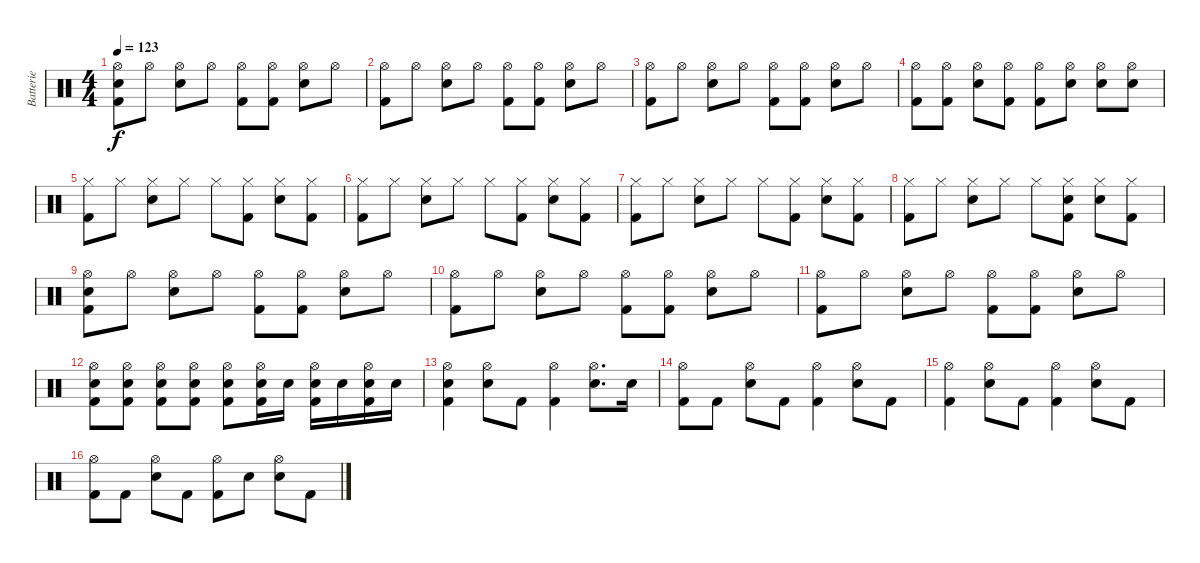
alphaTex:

\track ("Batterie" "Batterie") {instrument percussion}
\staff {score}
\articulation defaults
\ts (4 4)
\tempo 123
\clef neutral
\ks c
("Hi-Hat (open)" "Snare (hit) 2" "Kick (hit) 2").8{dy f} "Hi-Hat (open)".8 ("Hi-Hat (open)" "Snare (hit) 2").8 "Hi-Hat (open)".8 ("Hi-Hat (open)" "Kick (hit) 2").8 ("Hi-Hat (open)" "Kick (hit) 2").8 ("Hi-Hat (open)" "Snare (hit) 2").8 "Hi-Hat (open)".8 |
("Hi-Hat (open)" "Kick (hit) 2").8 "Hi-Hat (open)".8 ("Hi-Hat (open)" "Snare (hit) 2").8 "Hi-Hat (open)".8 ("Hi-Hat (open)" "Kick (hit) 2").8 ("Hi-Hat (open)" "Kick (hit) 2").8 ("Hi-Hat (open)" "Snare (hit) 2").8 "Hi-Hat (open)".8 |
("Hi-Hat (open)" "Kick (hit) 2").8 "Hi-Hat (open)".8 ("Hi-Hat (open)" "Snare (hit) 2").8 "Hi-Hat (open)".8 ("Hi-Hat (open)" "Kick (hit) 2").8 ("Hi-Hat (open)" "Kick (hit) 2").8 ("Hi-Hat (open)" "Snare (hit) 2").8 "Hi-Hat (open)".8 |
("Hi-Hat (open)" "Kick (hit) 2").8 ("Hi-Hat (open)" "Kick (hit) 2").8 ("Hi-Hat (open)" "Snare (hit) 2").8 ("Hi-Hat (open)" "Kick (hit) 2").8 ("Hi-Hat (open)" "Kick (hit) 2").8 ("Hi-Hat (open)" "Snare (hit) 2").8 ("Hi-Hat (open)" "Snare (hit) 2").8 ("Hi-Hat (open)" "Snare (hit) 2").8 |
("Hi-Hat (closed)" "Kick (hit) 2").8 "Hi-Hat (closed)".8 ("Hi-Hat (closed)" "Snare (hit) 2").8 "Hi-Hat (closed)".8 "Hi-Hat (closed)".8 ("Hi-Hat (closed)" "Kick (hit) 2").8 ("Hi-Hat (closed)" "Snare (hit) 2").8 ("Hi-Hat (closed)" "Kick (hit) 2").8 |
("Hi-Hat (closed)" "Kick (hit) 2").8 "Hi-Hat (closed)".8 ("Hi-Hat (closed)" "Snare (hit) 2").8 "Hi-Hat (closed)".8 "Hi-Hat (closed)".8 ("Hi-Hat (closed)" "Kick (hit) 2").8 ("Hi-Hat (closed)" "Snare (hit) 2").8 ("Hi-Hat (closed)" "Kick (hit) 2").8 |
("Hi-Hat (closed)" "Kick (hit) 2").8 "Hi-Hat (closed)".8 ("Hi-Hat (closed)" "Snare (hit) 2").8 "Hi-Hat (closed)".8 "Hi-Hat (closed)".8 ("Hi-Hat (closed)" "Kick (hit) 2").8 ("Hi-Hat (closed)" "Snare (hit) 2").8 ("Hi-Hat (closed)" "Kick (hit) 2").8 |
("Hi-Hat (closed)" "Kick (hit) 2").8 "Hi-Hat (closed)".8 ("Hi-Hat (closed)" "Snare (hit) 2").8 "Hi-Hat (closed)".8 "Hi-Hat (closed)".8 ("Hi-Hat (closed)" "Snare (hit) 2" "Kick (hit) 2").8 ("Hi-Hat (closed)" "Snare (hit) 2").8 ("Hi-Hat (closed)" "Kick (hit) 2").8 |
("Hi-Hat (open)" "Snare (hit) 2" "Kick (hit) 2").8 "Hi-Hat (open)".8 ("Hi-Hat (open)" "Snare (hit) 2").8 "Hi-Hat (open)".8 ("Hi-Hat (open)" "Kick (hit) 2").8 ("Hi-Hat (open)" "Kick (hit) 2").8 ("Hi-Hat (open)" "Snare (hit) 2").8 "Hi-Hat (open)".8 |
("Hi-Hat (open)" "Kick (hit) 2").8 "Hi-Hat (open)".8 ("Hi-Hat (open)" "Snare (hit) 2").8 "Hi-Hat (open)".8 ("Hi-Hat (open)" "Kick (hit) 2").8 ("Hi-Hat (open)" "Kick (hit) 2").8 ("Hi-Hat (open)" "Snare (hit) 2").8 "Hi-Hat (open)".8 |
("Hi-Hat (open)" "Kick (hit) 2").8 "Hi-Hat (open)".8 ("Hi-Hat (open)" "Snare (hit) 2").8 "Hi-Hat (open)".8 ("Hi-Hat (open)" "Kick (hit) 2").8 ("Hi-Hat (open)" "Kick (hit) 2").8 ("Hi-Hat (open)" "Snare (hit) 2").8 "Hi-Hat (open)".8{volume 6} |
("Hi-Hat (open)" "Snare (hit) 2" "Kick (hit) 2").8{volume 16} ("Hi-Hat (open)" "Snare (hit) 2" "Kick (hit) 2").8 ("Hi-Hat (open)" "Snare (hit) 2" "Kick (hit) 2").8 ("Hi-Hat (open)" "Snare (hit) 2" "Kick (hit) 2").8 ("Hi-Hat (open)" "Snare (hit) 2" "Kick (hit) 2").8 ("Hi-Hat (open)" "Snare (hit) 2" "Kick (hit) 2").16 "Snare (hit) 2".16 ("Hi-Hat (open)" "Snare (hit) 2" "Kick (hit) 2").16 "Snare (hit) 2".16 ("Hi-Hat (open)" "Snare (hit) 2" "Kick (hit) 2").16 "Snare (hit) 2".16 |
("Hi-Hat (open)" "Snare (hit) 2" "Kick (hit) 2").4 ("Hi-Hat (open)" "Snare (hit) 2").8 "Kick (hit) 2".8 ("Hi-Hat (open)" "Kick (hit) 2").4 ("Hi-Hat (open)" "Snare (hit) 2").8{d} "Snare (hit) 2".16 |
("Hi-Hat (open)" "Kick (hit) 2").8 "Kick (hit) 2".8 ("Hi-Hat (open)" "Snare (hit) 2").8 "Kick (hit) 2".8 ("Hi-Hat (open)" "Kick (hit) 2").4 ("Hi-Hat (open)" "Snare (hit) 2").8 "Kick (hit) 2".8 |
("Hi-Hat (open)" "Kick (hit) 2").4 ("Hi-Hat (open)" "Snare (hit) 2").8 "Kick (hit) 2".8 ("Hi-Hat (open)" "Kick (hit) 2").4 ("Hi-Hat (open)" "Snare (hit) 2").8 "Kick (hit) 2".8 |
("Hi-Hat (open)" "Kick (hit) 2").8 "Kick (hit) 2".8 ("Hi-Hat (open)" "Snare (hit) 2").8 "Kick (hit) 2".8 ("Hi-Hat (open)" "Kick (hit) 2").8 "Snare (hit) 2".8 ("Hi-Hat (open)" "Snare (hit) 2").8 "Kick (hit) 2".8
